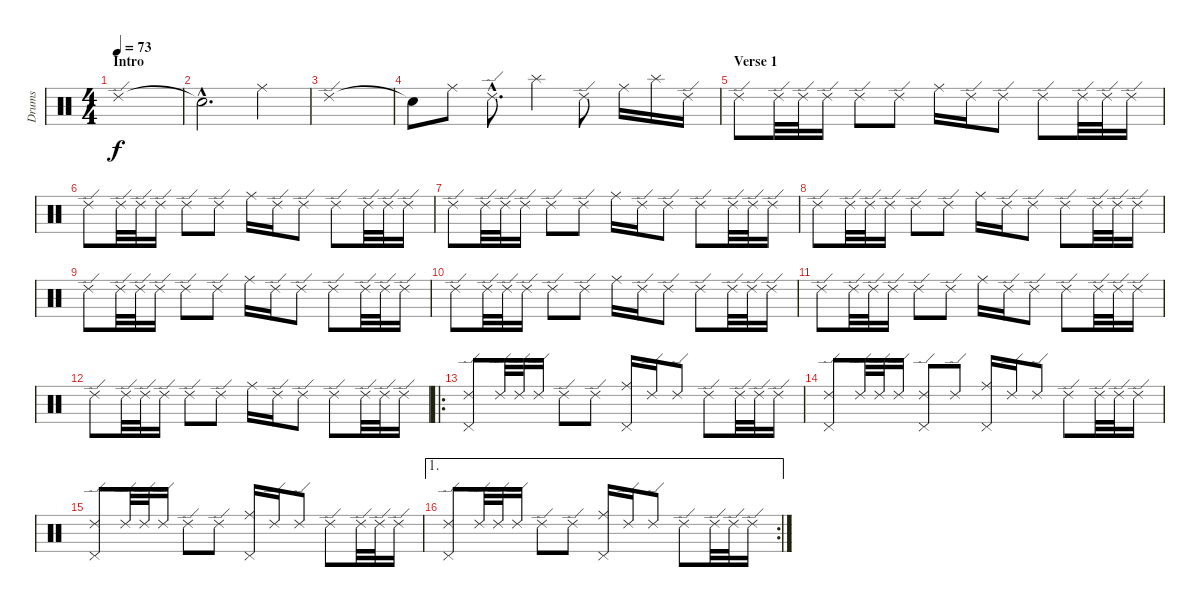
\track ("Drums" "Drums") {instrument percussion}
\staff {score}
\articulation defaults
\ts (4 4)
\section ("" "Intro")
\tempo 73
\clef neutral
\ks c "Ride (edge) 2".1{dy f}
|
"Snare (hit)"{hac t}.2{d} "Ride (middle)".4 |
"Ride (edge) 2".1 |
"Snare (hit)"{t}.8 "Ride (middle)".8 "Ride (edge) 2"{hac}.8{d} "Splash (hit)".4 "Ride (edge) 2".8 "Ride (middle)".16 "Splash (hit)".16 "Ride (edge) 2".16 |
\section ("" "Verse 1")
"Ride (edge) 2".8 "Ride (edge) 2".32 "Ride (edge) 2".32 "Ride (edge) 2".16 "Ride (edge) 2".8 "Ride (edge) 2".8 "Ride (middle)".16 "Ride (edge) 2".16 "Ride (edge) 2".8 "Ride (edge) 2".8 "Ride (edge) 2".32 "Ride (edge) 2".32 "Ride (edge) 2".16 |
"Ride (edge) 2".8 "Ride (edge) 2".32 "Ride (edge) 2".32 "Ride (edge) 2".16 "Ride (edge) 2".8 "Ride (edge) 2".8 "Ride (middle)".16 "Ride (edge) 2".16 "Ride (edge) 2".8 "Ride (edge) 2".8 "Ride (edge) 2".32 "Ride (edge) 2".32 "Ride (edge) 2".16 |
"Ride (edge) 2".8 "Ride (edge) 2".32 "Ride (edge) 2".32 "Ride (edge) 2".16 "Ride (edge) 2".8 "Ride (edge) 2".8 "Ride (middle)".16 "Ride (edge) 2".16 "Ride (edge) 2".8 "Ride (edge) 2".8 "Ride (edge) 2".32 "Ride (edge) 2".32 "Ride (edge) 2".16 |
"Ride (edge) 2".8 "Ride (edge) 2".32 "Ride (edge) 2".32 "Ride (edge) 2".16 "Ride (edge) 2".8 "Ride (edge) 2".8 "Ride (middle)".16 "Ride (edge) 2".16 "Ride (edge) 2".8 "Ride (edge) 2".8 "Ride (edge) 2".32 "Ride (edge) 2".32 "Ride (edge) 2".16 |
"Ride (edge) 2".8 "Ride (edge) 2".32 "Ride (edge) 2".32 "Ride (edge) 2".16 "Ride (edge) 2".8 "Ride (edge) 2".8 "Ride (middle)".16 "Ride (edge) 2".16 "Ride (edge) 2".8 "Ride (edge) 2".8 "Ride (edge) 2".32 "Ride (edge) 2".32 "Ride (edge) 2".16 |
"Ride (edge) 2".8 "Ride (edge) 2".32 "Ride (edge) 2".32 "Ride (edge) 2".16 "Ride (edge) 2".8 "Ride (edge) 2".8 "Ride (middle)".16 "Ride (edge) 2".16 "Ride (edge) 2".8 "Ride (edge) 2".8 "Ride (edge) 2".32 "Ride (edge) 2".32 "Ride (edge) 2".16 |
"Ride (edge) 2".8 "Ride (edge) 2".32 "Ride (edge) 2".32 "Ride (edge) 2".16 "Ride (edge) 2".8 "Ride (edge) 2".8 "Ride (middle)".16 "Ride (edge) 2".16 "Ride (edge) 2".8 "Ride (edge) 2".8 "Ride (edge) 2".32 "Ride (edge) 2".32 "Ride (edge) 2".16 |
"Ride (edge) 2".8 "Ride (edge) 2".32 "Ride (edge) 2".32 "Ride (edge) 2".16 "Ride (edge) 2".8 "Ride (edge) 2".8 "Ride (middle)".16 "Ride (edge) 2".16 "Ride (edge) 2".8 "Ride (edge) 2".8 "Ride (edge) 2".32 "Ride (edge) 2".32 "Ride (edge) 2".16 |
\ro
("Ride (edge) 2" "Pedal Hi-Hat (hit)").8 "Ride (edge) 2".32 "Ride (edge) 2".32 "Ride (edge) 2".16 "Ride (edge) 2".8 "Ride (edge) 2".8 ("Ride (middle)" "Pedal Hi-Hat (hit)").16 "Ride (edge) 2".16 "Ride (edge) 2".8 "Ride (edge) 2".8 "Ride (edge) 2".32 "Ride (edge) 2".32 "Ride (edge) 2".16 |
("Ride (edge) 2" "Pedal Hi-Hat (hit)").8 "Ride (edge) 2".32 "Ride (edge) 2".32 "Ride (edge) 2".16 ("Ride (edge) 2" "Pedal Hi-Hat (hit)").8 "Ride (edge) 2".8 ("Ride (middle)" "Pedal Hi-Hat (hit)").16 "Ride (edge) 2".16 "Ride (edge) 2".8 "Ride (edge) 2".8 "Ride (edge) 2".32 "Ride (edge) 2".32 "Ride (edge) 2".16 |
("Ride (edge) 2" "Pedal Hi-Hat (hit)").8 "Ride (edge) 2".32 "Ride (edge) 2".32 "Ride (edge) 2".16 "Ride (edge) 2".8 "Ride (edge) 2".8 ("Ride (middle)" "Pedal Hi-Hat (hit)").16 "Ride (edge) 2".16 "Ride (edge) 2".8 "Ride (edge) 2".8 "Ride (edge) 2".32 "Ride (edge) 2".32 "Ride (edge) 2".16 |
\ae 1
\rc 2
("Ride (edge) 2" "Pedal Hi-Hat (hit)").8 "Ride (edge) 2".32 "Ride (edge) 2".32 "Ride (edge) 2".16 "Ride (edge) 2".8 "Ride (edge) 2".8 ("Ride (middle)" "Pedal Hi-Hat (hit)").16 "Ride (edge) 2".16 "Ride (edge) 2".8 "Ride (edge) 2".8 "Ride (edge) 2".32 "Ride (edge) 2".32 "Ride (edge) 2".16
